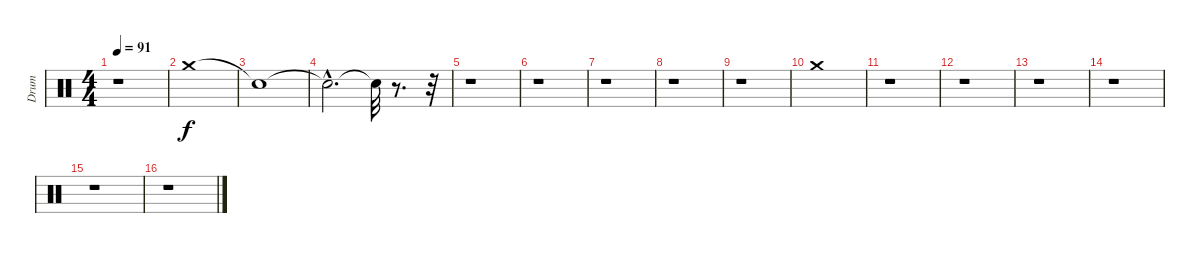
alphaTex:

\track ("Drum" "Drum") {instrument percussion}
\staff {score}
\articulation defaults
\ts (4 4)
\tempo 91
\clef neutral
\ks c
r.1{dy f} |
"Crash medium (hit)".1 |
"Snare (hit)"{t}.1 |
"Snare (hit)"{hac t}.2{d} "Snare (hit)"{t}.32 r.8{d} r.32 |
r.1 |
r.1 |
r.1 |
r.1 |
r.1 |
"Crash medium (hit)".1 |
r.1 |
r.1 |
r.1 |
r.1 |
r.1 |
r.1
